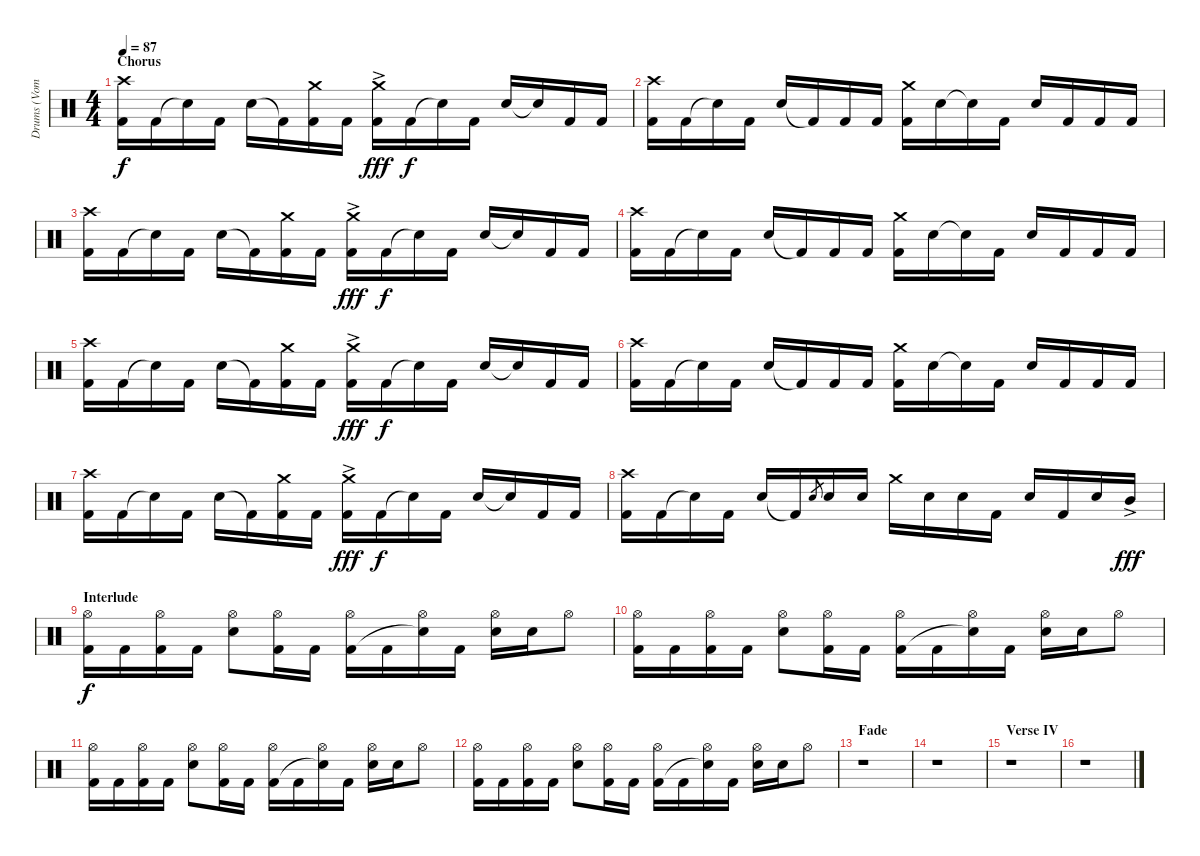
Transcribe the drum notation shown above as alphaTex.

\track ("Drums (Vom)" "Drums (Vom") {instrument percussion}
\staff {score}
\articulation defaults
\ts (4 4)
\section ("" "Chorus")
\tempo 87
\clef neutral
\ks c
("Crash high (hit)" "Kick (hit) 2").16{dy f} "Kick (hit) 2".16 "Snare (hit)"{t}.16 "Kick (hit) 2".16 "Snare (hit) 2".16 "Kick (hit) 2"{t}.16 ("Crash medium (hit)" "Kick (hit) 2").16 "Kick (hit) 2".16 ("Crash medium (hit)"{ac} "Kick (hit) 2").16{dy fff} "Kick (hit) 2".16{dy f} "Snare (hit)"{t}.16 "Kick (hit) 2".16 "Snare (hit) 2".16 "Snare (hit)"{t}.16 "Kick (hit) 2".16 "Kick (hit) 2".16 |
("Crash high (hit)" "Kick (hit) 2").16 "Kick (hit) 2".16 "Snare (hit)"{t}.16 "Kick (hit) 2".16 "Snare (hit) 2".16 "Kick (hit) 2"{t}.16 "Kick (hit) 2".16 "Kick (hit) 2".16 ("Crash medium (hit)" "Kick (hit) 2").16 "Snare (hit) 2".16 "Snare (hit)"{t}.16 "Kick (hit) 2".16 "Snare (hit) 2".16 "Kick (hit) 2".16 "Kick (hit) 2".16 "Kick (hit) 2".16 |
("Crash high (hit)" "Kick (hit) 2").16 "Kick (hit) 2".16 "Snare (hit)"{t}.16 "Kick (hit) 2".16 "Snare (hit) 2".16 "Kick (hit) 2"{t}.16 ("Crash medium (hit)" "Kick (hit) 2").16 "Kick (hit) 2".16 ("Crash medium (hit)"{ac} "Kick (hit) 2").16{dy fff} "Kick (hit) 2".16{dy f} "Snare (hit)"{t}.16 "Kick (hit) 2".16 "Snare (hit) 2".16 "Snare (hit)"{t}.16 "Kick (hit) 2".16 "Kick (hit) 2".16 |
("Crash high (hit)" "Kick (hit) 2").16 "Kick (hit) 2".16 "Snare (hit)"{t}.16 "Kick (hit) 2".16 "Snare (hit) 2".16 "Kick (hit) 2"{t}.16 "Kick (hit) 2".16 "Kick (hit) 2".16 ("Crash medium (hit)" "Kick (hit) 2").16 "Snare (hit) 2".16 "Snare (hit)"{t}.16 "Kick (hit) 2".16 "Snare (hit) 2".16 "Kick (hit) 2".16 "Kick (hit) 2".16 "Kick (hit) 2".16 |
("Crash high (hit)" "Kick (hit) 2").16 "Kick (hit) 2".16 "Snare (hit)"{t}.16 "Kick (hit) 2".16 "Snare (hit) 2".16 "Kick (hit) 2"{t}.16 ("Crash medium (hit)" "Kick (hit) 2").16 "Kick (hit) 2".16 ("Crash medium (hit)"{ac} "Kick (hit) 2").16{dy fff} "Kick (hit) 2".16{dy f} "Snare (hit)"{t}.16 "Kick (hit) 2".16 "Snare (hit) 2".16 "Snare (hit)"{t}.16 "Kick (hit) 2".16 "Kick (hit) 2".16 |
("Crash high (hit)" "Kick (hit) 2").16 "Kick (hit) 2".16 "Snare (hit)"{t}.16 "Kick (hit) 2".16 "Snare (hit) 2".16 "Kick (hit) 2"{t}.16 "Kick (hit) 2".16 "Kick (hit) 2".16 ("Crash medium (hit)" "Kick (hit) 2").16 "Snare (hit) 2".16 "Snare (hit)"{t}.16 "Kick (hit) 2".16 "Snare (hit) 2".16 "Kick (hit) 2".16 "Kick (hit) 2".16 "Kick (hit) 2".16 |
("Crash high (hit)" "Kick (hit) 2").16 "Kick (hit) 2".16 "Snare (hit)"{t}.16 "Kick (hit) 2".16 "Snare (hit) 2".16 "Kick (hit) 2"{t}.16 ("Crash medium (hit)" "Kick (hit) 2").16 "Kick (hit) 2".16 ("Crash medium (hit)"{ac} "Kick (hit) 2").16{dy fff} "Kick (hit) 2".16{dy f} "Snare (hit)"{t}.16 "Kick (hit) 2".16 "Snare (hit) 2".16 "Snare (hit)"{t}.16 "Kick (hit) 2".16 "Kick (hit) 2".16 |
("Crash high (hit)" "Kick (hit) 2").16 "Kick (hit) 2".16 "Snare (hit)"{t}.16 "Kick (hit) 2".16 "Snare (hit) 2".16 "Kick (hit) 2"{t}.16 "Snare (hit) 2".8{gr} "Snare (hit) 2".16 "Snare (hit) 2".16 "Crash medium (hit)".16 "Snare (hit) 2".16 "Snare (hit) 2".16 "Kick (hit) 2".16 "Snare (hit) 2".16 "Kick (hit) 2".16 "Snare (hit) 2".16 "Mid Tom (hit)"{ac}.16{dy fff} |
\section ("" "Interlude")
("Hi-Hat (open)" "Kick (hit) 2").16{dy f} "Kick (hit) 2".16 ("Hi-Hat (open)" "Kick (hit) 2").16 "Kick (hit) 2".16 ("Hi-Hat (open)" "Snare (hit) 2").8 ("Hi-Hat (open)" "Kick (hit) 2").16 "Kick (hit) 2".16 ("Hi-Hat (open)" "Kick (hit) 2").16 "Kick (hit) 2".16 ("Hi-Hat (open)" "Snare (hit)"{t}).16 "Kick (hit) 2".16 ("Hi-Hat (open)" "Snare (hit) 2").16 "Snare (hit) 2".16 "Hi-Hat (open)".8 |
("Hi-Hat (open)" "Kick (hit) 2").16 "Kick (hit) 2".16 ("Hi-Hat (open)" "Kick (hit) 2").16 "Kick (hit) 2".16 ("Hi-Hat (open)" "Snare (hit) 2").8 ("Hi-Hat (open)" "Kick (hit) 2").16 "Kick (hit) 2".16 ("Hi-Hat (open)" "Kick (hit) 2").16 "Kick (hit) 2".16 ("Hi-Hat (open)" "Snare (hit)"{t}).16 "Kick (hit) 2".16 ("Hi-Hat (open)" "Snare (hit) 2").16 "Snare (hit) 2".16 "Hi-Hat (open)".8 |
("Hi-Hat (open)" "Kick (hit) 2").16 "Kick (hit) 2".16 ("Hi-Hat (open)" "Kick (hit) 2").16 "Kick (hit) 2".16 ("Hi-Hat (open)" "Snare (hit) 2").8 ("Hi-Hat (open)" "Kick (hit) 2").16 "Kick (hit) 2".16 ("Hi-Hat (open)" "Kick (hit) 2").16 "Kick (hit) 2".16 ("Hi-Hat (open)" "Snare (hit)"{t}).16 "Kick (hit) 2".16 ("Hi-Hat (open)" "Snare (hit) 2").16 "Snare (hit) 2".16 "Hi-Hat (open)".8 |
("Hi-Hat (open)" "Kick (hit) 2").16 "Kick (hit) 2".16 ("Hi-Hat (open)" "Kick (hit) 2").16 "Kick (hit) 2".16 ("Hi-Hat (open)" "Snare (hit) 2").8 ("Hi-Hat (open)" "Kick (hit) 2").16 "Kick (hit) 2".16 ("Hi-Hat (open)" "Kick (hit) 2").16 "Kick (hit) 2".16 ("Hi-Hat (open)" "Snare (hit)"{t}).16 "Kick (hit) 2".16 ("Hi-Hat (open)" "Snare (hit) 2").16 "Snare (hit) 2".16 "Hi-Hat (open)".8 |
\section ("" "Fade")
r.1 |
r.1 |
\section ("" "Verse IV")
r.1 |
r.1
